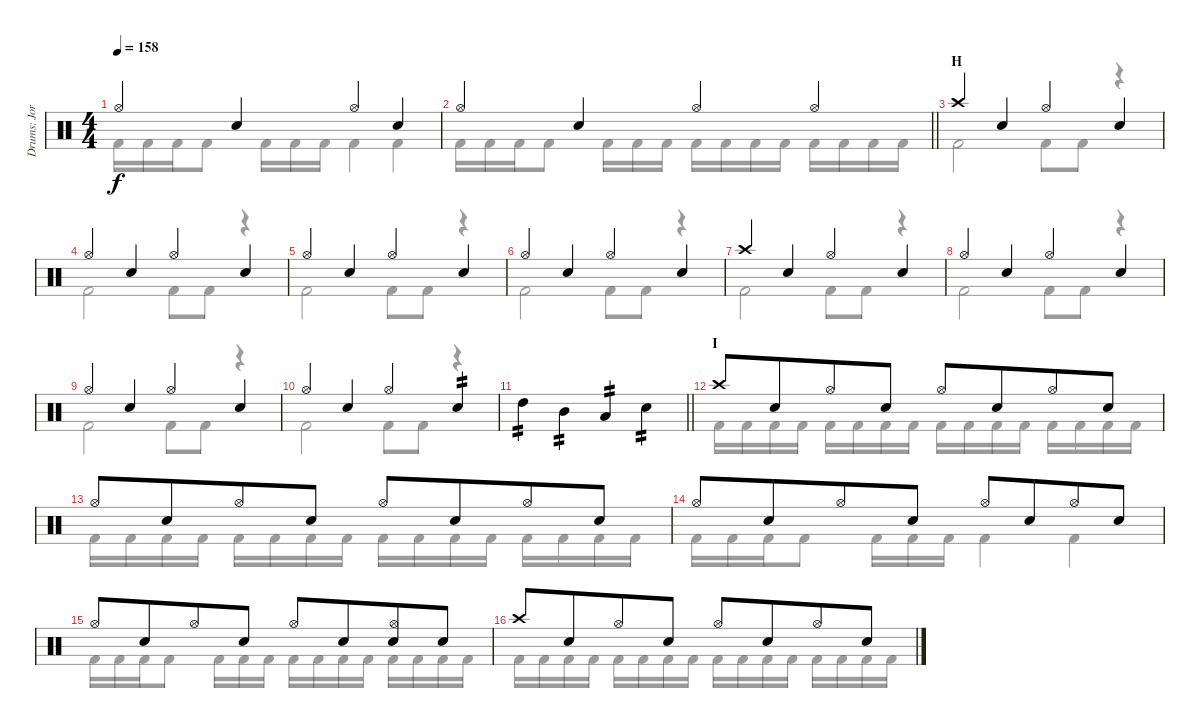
\track ("Drums: Jorg" "Drums: Jor") {instrument percussion}
\staff {score}
\articulation defaults
\voice
\ts (4 4)
\tempo 158
\clef neutral
\ks c "Hi-Hat (open)".4{dy f} "Snare (hit) 2".4 "Hi-Hat (open)".4 "Snare (hit) 2".4
|
\barLineRight lightlight "Hi-Hat (open)".4 "Snare (hit) 2".4 "Hi-Hat (open)".4 "Hi-Hat (open)".4
|
\section ("" "H")
"Crash high (hit)".4 "Snare (hit) 2".4 "Hi-Hat (open)".4 "Snare (hit) 2".4 |
"Hi-Hat (open)".4 "Snare (hit) 2".4 "Hi-Hat (open)".4 "Snare (hit) 2".4 |
"Hi-Hat (open)".4 "Snare (hit) 2".4 "Hi-Hat (open)".4 "Snare (hit) 2".4 |
"Hi-Hat (open)".4 "Snare (hit) 2".4 "Hi-Hat (open)".4 "Snare (hit) 2".4 |
"Crash high (hit)".4 "Snare (hit) 2".4 "Hi-Hat (open)".4 "Snare (hit) 2".4 |
"Hi-Hat (open)".4 "Snare (hit) 2".4 "Hi-Hat (open)".4 "Snare (hit) 2".4 |
"Hi-Hat (open)".4 "Snare (hit) 2".4 "Hi-Hat (open)".4 "Snare (hit) 2".4 |
"Hi-Hat (open)".4 "Snare (hit) 2".4 "Hi-Hat (open)".4 "Snare (hit) 2".4{tp 2} |
\barLineRight lightlight "High Tom (hit)".4{tp 2} "Mid Tom (hit)".4{tp 2} "Low Tom (hit)".4{tp 2} "Electric Snare (hit)".4{tp 2}
|
\section ("" "I")
"Crash high (hit)".8 "Snare (hit) 2".8{beam merge} "Hi-Hat (open)".8 "Snare (hit) 2".8 "Hi-Hat (open)".8 "Snare (hit) 2".8{beam merge} "Hi-Hat (open)".8 "Snare (hit) 2".8 |
"Hi-Hat (open)".8 "Snare (hit) 2".8{beam merge} "Hi-Hat (open)".8 "Snare (hit) 2".8 "Hi-Hat (open)".8 "Snare (hit) 2".8{beam merge} "Hi-Hat (open)".8 "Snare (hit) 2".8 |
"Hi-Hat (open)".8 "Snare (hit) 2".8{beam merge} "Hi-Hat (open)".8 "Snare (hit) 2".8 "Hi-Hat (open)".8 "Snare (hit) 2".8{beam merge} "Hi-Hat (open)".8 "Snare (hit) 2".8 |
"Hi-Hat (open)".8 "Snare (hit) 2".8{beam merge} "Hi-Hat (open)".8 "Snare (hit) 2".8 "Hi-Hat (open)".8 "Snare (hit) 2".8{beam merge} ("Hi-Hat (open)" "Snare (hit) 2").8 "Snare (hit) 2".8 |
"Crash high (hit)".8 "Snare (hit) 2".8{beam merge} "Hi-Hat (open)".8 "Snare (hit) 2".8 "Hi-Hat (open)".8 "Snare (hit) 2".8{beam merge} "Hi-Hat (open)".8 "Snare (hit) 2".8
\voice
\clef neutral
\ottava regular
\simile none
\ks c "Kick (hit) 2".16{dy f} "Kick (hit) 2".16 "Kick (hit) 2".16 "Kick (hit) 2".8 "Kick (hit) 2".16 "Kick (hit) 2".16 "Kick (hit) 2".16 "Kick (hit) 2".4 "Kick (hit) 2".4
|
\barLineRight lightlight "Kick (hit) 2".16 "Kick (hit) 2".16 "Kick (hit) 2".16 "Kick (hit) 2".8 "Kick (hit) 2".16 "Kick (hit) 2".16 "Kick (hit) 2".16 "Kick (hit) 2".16 "Kick (hit) 2".16 "Kick (hit) 2".16 "Kick (hit) 2".16 "Kick (hit) 2".16 "Kick (hit) 2".16 "Kick (hit) 2".16 "Kick (hit) 2".16
|
"Kick (hit) 2".2 "Kick (hit) 2".8 "Kick (hit) 2".8 r.4 |
"Kick (hit) 2".2 "Kick (hit) 2".8 "Kick (hit) 2".8 r.4 |
"Kick (hit) 2".2 "Kick (hit) 2".8 "Kick (hit) 2".8 r.4 |
"Kick (hit) 2".2 "Kick (hit) 2".8 "Kick (hit) 2".8 r.4 |
"Kick (hit) 2".2 "Kick (hit) 2".8 "Kick (hit) 2".8 r.4 |
"Kick (hit) 2".2 "Kick (hit) 2".8 "Kick (hit) 2".8 r.4 |
"Kick (hit) 2".2 "Kick (hit) 2".8 "Kick (hit) 2".8 r.4 |
"Kick (hit) 2".2 "Kick (hit) 2".8 "Kick (hit) 2".8 r.4 |
\barLineRight lightlight
|
"Kick (hit) 2".16 "Kick (hit) 2".16 "Kick (hit) 2".16 "Kick (hit) 2".16 "Kick (hit) 2".16 "Kick (hit) 2".16 "Kick (hit) 2".16 "Kick (hit) 2".16 "Kick (hit) 2".16 "Kick (hit) 2".16 "Kick (hit) 2".16 "Kick (hit) 2".16 "Kick (hit) 2".16 "Kick (hit) 2".16 "Kick (hit) 2".16 "Kick (hit) 2".16 |
"Kick (hit) 2".16 "Kick (hit) 2".16 "Kick (hit) 2".16 "Kick (hit) 2".16 "Kick (hit) 2".16 "Kick (hit) 2".16 "Kick (hit) 2".16 "Kick (hit) 2".16 "Kick (hit) 2".16 "Kick (hit) 2".16 "Kick (hit) 2".16 "Kick (hit) 2".16 "Kick (hit) 2".16 "Kick (hit) 2".16 "Kick (hit) 2".16 "Kick (hit) 2".16 |
"Kick (hit) 2".16 "Kick (hit) 2".16 "Kick (hit) 2".16 "Kick (hit) 2".8 "Kick (hit) 2".16 "Kick (hit) 2".16 "Kick (hit) 2".16 "Kick (hit) 2".4 "Kick (hit) 2".4 |
"Kick (hit) 2".16 "Kick (hit) 2".16 "Kick (hit) 2".16 "Kick (hit) 2".8 "Kick (hit) 2".16 "Kick (hit) 2".16 "Kick (hit) 2".16 "Kick (hit) 2".16 "Kick (hit) 2".16 "Kick (hit) 2".16 "Kick (hit) 2".16 "Kick (hit) 2".16 "Kick (hit) 2".16 "Kick (hit) 2".16 "Kick (hit) 2".16 |
"Kick (hit) 2".16 "Kick (hit) 2".16 "Kick (hit) 2".16 "Kick (hit) 2".16 "Kick (hit) 2".16 "Kick (hit) 2".16 "Kick (hit) 2".16 "Kick (hit) 2".16 "Kick (hit) 2".16 "Kick (hit) 2".16 "Kick (hit) 2".16 "Kick (hit) 2".16 "Kick (hit) 2".16 "Kick (hit) 2".16 "Kick (hit) 2".16 "Kick (hit) 2".16
